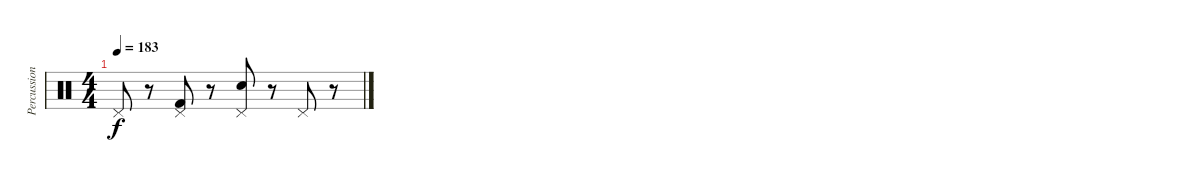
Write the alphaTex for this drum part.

\track ("Percussion" "Percussion") {instrument percussion}
\staff {score}
\articulation defaults
\ts (4 4)
\tempo 183
\clef neutral
\ks c "Pedal Hi-Hat (hit)".8{dy f}
r.8 ("Pedal Hi-Hat (hit)" "Kick (hit) 2").8 r.8 ("Pedal Hi-Hat (hit)" "Electric Snare (hit)").8 r.8 "Pedal Hi-Hat (hit)".8 r.8
